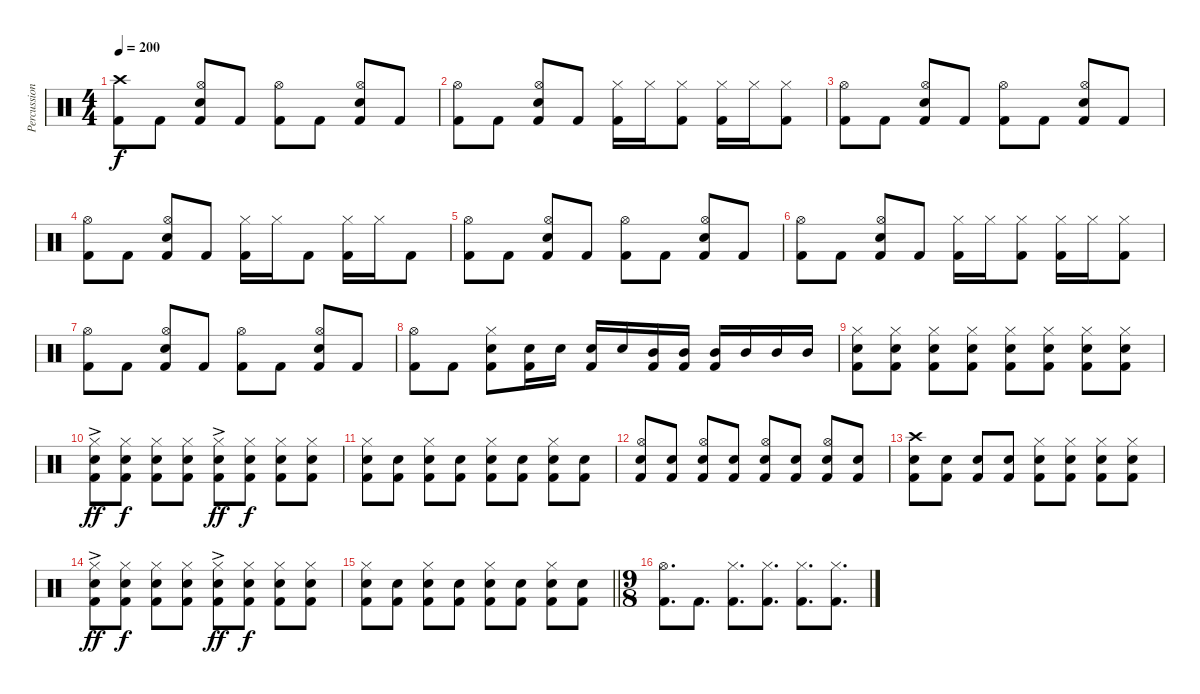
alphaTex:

\track ("Percussions" "Percussion") {instrument percussion}
\staff {score}
\articulation defaults
\ts (4 4)
\tempo 200
\clef neutral
\ks c
("Crash high (hit)" "Kick (hit) 2").8{dy f volume 13} "Kick (hit) 2".8 ("Hi-Hat (open)" "Electric Snare (hit)" "Kick (hit) 2").8 "Kick (hit) 2".8 ("Hi-Hat (open)" "Kick (hit) 2").8 "Kick (hit) 2".8 ("Hi-Hat (open)" "Electric Snare (hit)" "Kick (hit) 2").8 "Kick (hit) 2".8 |
("Hi-Hat (open)" "Kick (hit) 2").8 "Kick (hit) 2".8 ("Hi-Hat (open)" "Electric Snare (hit)" "Kick (hit) 2").8 "Kick (hit) 2".8 ("Hi-Hat (closed)" "Kick (hit) 2").16 "Hi-Hat (closed)".16 ("Hi-Hat (closed)" "Kick (hit) 2").8 ("Hi-Hat (closed)" "Kick (hit) 2").16 "Hi-Hat (closed)".16 ("Hi-Hat (closed)" "Kick (hit) 2").8 |
("Hi-Hat (open)" "Kick (hit) 2").8 "Kick (hit) 2".8 ("Hi-Hat (open)" "Electric Snare (hit)" "Kick (hit) 2").8 "Kick (hit) 2".8 ("Hi-Hat (open)" "Kick (hit) 2").8 "Kick (hit) 2".8 ("Hi-Hat (open)" "Electric Snare (hit)" "Kick (hit) 2").8 "Kick (hit) 2".8 |
("Hi-Hat (open)" "Kick (hit) 2").8 "Kick (hit) 2".8 ("Hi-Hat (open)" "Electric Snare (hit)" "Kick (hit) 2").8 "Kick (hit) 2".8 ("Hi-Hat (closed)" "Kick (hit) 2").16 "Hi-Hat (closed)".16 "Kick (hit) 2".8 ("Hi-Hat (closed)" "Kick (hit) 2").16 "Hi-Hat (closed)".16 "Kick (hit) 2".8 |
("Hi-Hat (open)" "Kick (hit) 2").8 "Kick (hit) 2".8 ("Hi-Hat (open)" "Electric Snare (hit)" "Kick (hit) 2").8 "Kick (hit) 2".8 ("Hi-Hat (open)" "Kick (hit) 2").8 "Kick (hit) 2".8 ("Hi-Hat (open)" "Electric Snare (hit)" "Kick (hit) 2").8 "Kick (hit) 2".8 |
("Hi-Hat (open)" "Kick (hit) 2").8 "Kick (hit) 2".8 ("Hi-Hat (open)" "Electric Snare (hit)" "Kick (hit) 2").8 "Kick (hit) 2".8 ("Hi-Hat (closed)" "Kick (hit) 2").16 "Hi-Hat (closed)".16 ("Hi-Hat (closed)" "Kick (hit) 2").8 ("Hi-Hat (closed)" "Kick (hit) 2").16 "Hi-Hat (closed)".16 ("Hi-Hat (closed)" "Kick (hit) 2").8 |
("Hi-Hat (open)" "Kick (hit) 2").8 "Kick (hit) 2".8 ("Hi-Hat (open)" "Electric Snare (hit)" "Kick (hit) 2").8 "Kick (hit) 2".8 ("Hi-Hat (open)" "Kick (hit) 2").8 "Kick (hit) 2".8 ("Hi-Hat (open)" "Electric Snare (hit)" "Kick (hit) 2").8 "Kick (hit) 2".8 |
("Hi-Hat (open)" "Kick (hit) 2").8 "Kick (hit) 2".8 ("Hi-Hat (closed)" "Electric Snare (hit)" "Kick (hit) 2").8 ("Electric Snare (hit)" "Kick (hit) 2").16 "Electric Snare (hit)".16 ("Electric Snare (hit)" "Kick (hit) 2").16 "Electric Snare (hit)".16 ("Mid Tom (hit)" "Kick (hit) 2").16 ("Mid Tom (hit)" "Kick (hit) 2").16 ("Mid Tom (hit)" "Kick (hit) 2").16 "Mid Tom (hit)".16 "Mid Tom (hit)".16 "Mid Tom (hit)".16 |
("Hi-Hat (closed)" "Electric Snare (hit)" "Kick (hit) 2").8 ("Hi-Hat (closed)" "Electric Snare (hit)" "Kick (hit) 2").8 ("Hi-Hat (closed)" "Electric Snare (hit)" "Kick (hit) 2").8 ("Hi-Hat (closed)" "Electric Snare (hit)" "Kick (hit) 2").8 ("Hi-Hat (closed)" "Electric Snare (hit)" "Kick (hit) 2").8 ("Hi-Hat (closed)" "Electric Snare (hit)" "Kick (hit) 2").8 ("Hi-Hat (closed)" "Electric Snare (hit)" "Kick (hit) 2").8 ("Hi-Hat (closed)" "Electric Snare (hit)" "Kick (hit) 2").8 |
("Hi-Hat (closed)"{ac} "Electric Snare (hit)" "Kick (hit) 2").8{dy ff} ("Hi-Hat (closed)" "Electric Snare (hit)" "Kick (hit) 2").8{dy f} ("Hi-Hat (closed)" "Electric Snare (hit)" "Kick (hit) 2").8 ("Hi-Hat (closed)" "Electric Snare (hit)" "Kick (hit) 2").8 ("Hi-Hat (closed)"{ac} "Electric Snare (hit)" "Kick (hit) 2").8{dy ff} ("Hi-Hat (closed)" "Electric Snare (hit)" "Kick (hit) 2").8{dy f} ("Hi-Hat (closed)" "Electric Snare (hit)" "Kick (hit) 2").8 ("Hi-Hat (closed)" "Electric Snare (hit)" "Kick (hit) 2").8 |
("Hi-Hat (closed)" "Electric Snare (hit)" "Kick (hit) 2").8 ("Electric Snare (hit)" "Kick (hit) 2").8 ("Hi-Hat (closed)" "Electric Snare (hit)" "Kick (hit) 2").8 ("Electric Snare (hit)" "Kick (hit) 2").8 ("Hi-Hat (closed)" "Electric Snare (hit)" "Kick (hit) 2").8 ("Electric Snare (hit)" "Kick (hit) 2").8 ("Hi-Hat (closed)" "Electric Snare (hit)" "Kick (hit) 2").8 ("Electric Snare (hit)" "Kick (hit) 2").8 |
("Hi-Hat (open)" "Electric Snare (hit)" "Kick (hit) 2").8 ("Electric Snare (hit)" "Kick (hit) 2").8 ("Hi-Hat (open)" "Electric Snare (hit)" "Kick (hit) 2").8 ("Electric Snare (hit)" "Kick (hit) 2").8 ("Hi-Hat (open)" "Electric Snare (hit)" "Kick (hit) 2").8 ("Electric Snare (hit)" "Kick (hit) 2").8 ("Hi-Hat (open)" "Electric Snare (hit)" "Kick (hit) 2").8 ("Electric Snare (hit)" "Kick (hit) 2").8 |
("Crash high (hit)" "Electric Snare (hit)" "Kick (hit) 2").8 ("Electric Snare (hit)" "Kick (hit) 2").8 ("Electric Snare (hit)" "Kick (hit) 2").8 ("Electric Snare (hit)" "Kick (hit) 2").8 ("Hi-Hat (closed)" "Electric Snare (hit)" "Kick (hit) 2").8 ("Hi-Hat (closed)" "Electric Snare (hit)" "Kick (hit) 2").8 ("Hi-Hat (closed)" "Electric Snare (hit)" "Kick (hit) 2").8 ("Hi-Hat (closed)" "Electric Snare (hit)" "Kick (hit) 2").8 |
("Hi-Hat (closed)"{ac} "Electric Snare (hit)" "Kick (hit) 2").8{dy ff} ("Hi-Hat (closed)" "Electric Snare (hit)" "Kick (hit) 2").8{dy f} ("Hi-Hat (closed)" "Electric Snare (hit)" "Kick (hit) 2").8 ("Hi-Hat (closed)" "Electric Snare (hit)" "Kick (hit) 2").8 ("Hi-Hat (closed)"{ac} "Electric Snare (hit)" "Kick (hit) 2").8{dy ff} ("Hi-Hat (closed)" "Electric Snare (hit)" "Kick (hit) 2").8{dy f} ("Hi-Hat (closed)" "Electric Snare (hit)" "Kick (hit) 2").8 ("Hi-Hat (closed)" "Electric Snare (hit)" "Kick (hit) 2").8 |
\barLineRight lightlight
("Hi-Hat (closed)" "Electric Snare (hit)" "Kick (hit) 2").8 ("Electric Snare (hit)" "Kick (hit) 2").8 ("Hi-Hat (closed)" "Electric Snare (hit)" "Kick (hit) 2").8 ("Electric Snare (hit)" "Kick (hit) 2").8 ("Hi-Hat (closed)" "Electric Snare (hit)" "Kick (hit) 2").8 ("Electric Snare (hit)" "Kick (hit) 2").8 ("Hi-Hat (closed)" "Electric Snare (hit)" "Kick (hit) 2").8 ("Electric Snare (hit)" "Kick (hit) 2").8 |
\ts (9 8)
("Hi-Hat (open)" "Kick (hit) 2").8{d} "Kick (hit) 2".8{d} ("Hi-Hat (closed)" "Kick (hit) 2").8{d} ("Hi-Hat (closed)" "Kick (hit) 2").8{d} ("Hi-Hat (closed)" "Kick (hit) 2").8{d} ("Hi-Hat (closed)" "Kick (hit) 2").8{d}
